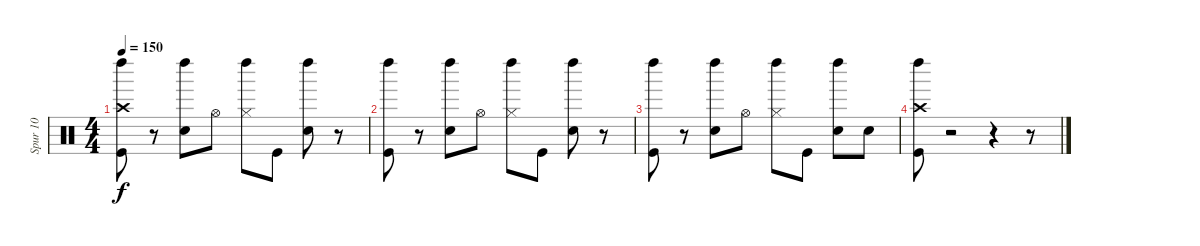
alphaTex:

\track ("Spur 10" "Spur 10") {instrument percussion}
\staff {score}
\articulation defaults
\ts (4 4)
\tempo 150
\clef neutral
\ks c
("Crash high (hit)" "Kick (hit)" "Left Maraca (hit)").8{dy f} r.8 ("Snare (hit) 2" "Left Maraca (hit)").8 "Hi-Hat (open)".8 ("Hi-Hat (closed)" "Left Maraca (hit)").8 "Kick (hit)".8 ("Snare (hit) 2" "Left Maraca (hit)").8 r.8 |
("Kick (hit)" "Left Maraca (hit)").8 r.8 ("Snare (hit) 2" "Left Maraca (hit)").8 "Hi-Hat (open)".8 ("Hi-Hat (closed)" "Left Maraca (hit)").8 "Kick (hit)".8 ("Snare (hit) 2" "Left Maraca (hit)").8 r.8 |
("Kick (hit)" "Left Maraca (hit)").8 r.8 ("Snare (hit) 2" "Left Maraca (hit)").8 "Hi-Hat (open)".8 ("Hi-Hat (closed)" "Left Maraca (hit)").8 "Kick (hit)".8 ("Snare (hit) 2" "Left Maraca (hit)").8 "Snare (hit) 2".8 |
("Crash high (hit)" "Kick (hit)" "Left Maraca (hit)").8 r.2 r.4 r.8
